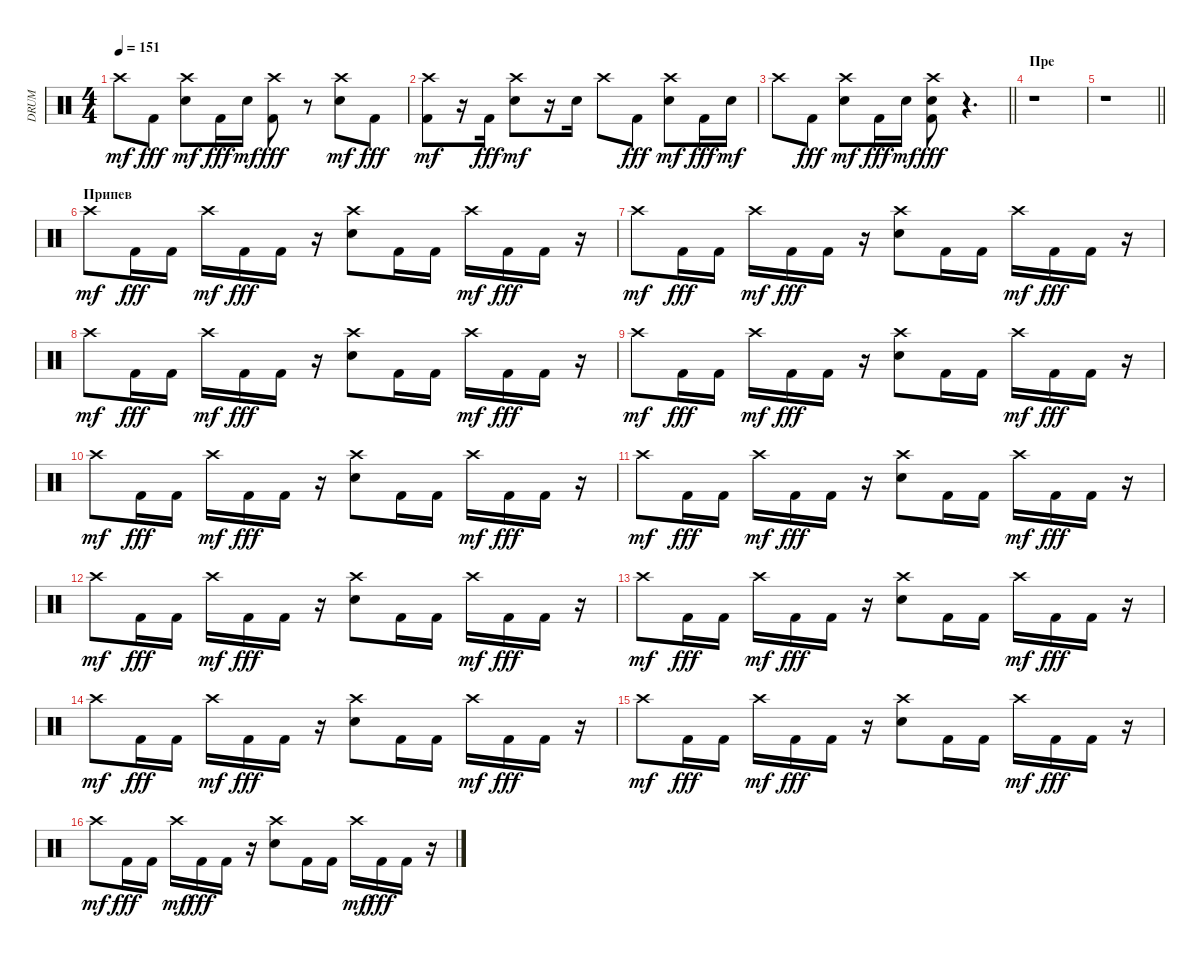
\track ("DRUM" "DRUM") {instrument percussion}
\staff {score}
\articulation defaults
\ts (4 4)
\tempo 151
\clef neutral
\ks c "Crash high (hit)".8{dy mf} "Kick (hit) 2".8{dy fff}
("Electric Snare (hit)" "Crash high (hit)").8{dy mf} "Kick (hit) 2".16{dy fff} "Electric Snare (hit)".16{dy mf} ("Crash high (hit)" "Kick (hit) 2").8{dy fff} r.8 ("Electric Snare (hit)" "Crash high (hit)").8{dy mf} "Kick (hit) 2".8{dy fff} |
("Kick (hit) 2" "Crash high (hit)").8{dy mf} r.16 "Kick (hit) 2".16{dy fff} ("Electric Snare (hit)" "Crash high (hit)").8{dy mf} r.16 "Electric Snare (hit)".16 "Crash high (hit)".8 "Kick (hit) 2".8{dy fff} ("Electric Snare (hit)" "Crash high (hit)").8{dy mf} "Kick (hit) 2".16{dy fff} "Electric Snare (hit)".16{dy mf} |
\barLineRight lightlight "Crash high (hit)".8 "Kick (hit) 2".8{dy fff}
("Electric Snare (hit)" "Crash high (hit)").8{dy mf} "Kick (hit) 2".16{dy fff} "Electric Snare (hit)".16{dy mf} ("Electric Snare (hit)" "Crash high (hit)" "Kick (hit) 2").8{dy fff} r.4{d} |
\section ("" "Пре")
r.1 |
\barLineRight lightlight
r.1 |
\section ("" "Припев")
"Crash high (hit)".8{dy mf} "Kick (hit) 2".16{dy fff} "Kick (hit) 2".16 "Crash high (hit)".16{dy mf} "Kick (hit) 2".16{dy fff} "Kick (hit) 2".16 r.16 ("Crash high (hit)" "Electric Snare (hit)").8 "Kick (hit) 2".16 "Kick (hit) 2".16 "Crash high (hit)".16{dy mf} "Kick (hit) 2".16{dy fff} "Kick (hit) 2".16 r.16 |
"Crash high (hit)".8{dy mf} "Kick (hit) 2".16{dy fff} "Kick (hit) 2".16 "Crash high (hit)".16{dy mf} "Kick (hit) 2".16{dy fff} "Kick (hit) 2".16 r.16 ("Crash high (hit)" "Electric Snare (hit)").8 "Kick (hit) 2".16 "Kick (hit) 2".16 "Crash high (hit)".16{dy mf} "Kick (hit) 2".16{dy fff} "Kick (hit) 2".16 r.16 |
"Crash high (hit)".8{dy mf} "Kick (hit) 2".16{dy fff} "Kick (hit) 2".16 "Crash high (hit)".16{dy mf} "Kick (hit) 2".16{dy fff} "Kick (hit) 2".16 r.16 ("Crash high (hit)" "Electric Snare (hit)").8 "Kick (hit) 2".16 "Kick (hit) 2".16 "Crash high (hit)".16{dy mf} "Kick (hit) 2".16{dy fff} "Kick (hit) 2".16 r.16 |
"Crash high (hit)".8{dy mf} "Kick (hit) 2".16{dy fff} "Kick (hit) 2".16 "Crash high (hit)".16{dy mf} "Kick (hit) 2".16{dy fff} "Kick (hit) 2".16 r.16 ("Crash high (hit)" "Electric Snare (hit)").8 "Kick (hit) 2".16 "Kick (hit) 2".16 "Crash high (hit)".16{dy mf} "Kick (hit) 2".16{dy fff} "Kick (hit) 2".16 r.16 |
"Crash high (hit)".8{dy mf} "Kick (hit) 2".16{dy fff} "Kick (hit) 2".16 "Crash high (hit)".16{dy mf} "Kick (hit) 2".16{dy fff} "Kick (hit) 2".16 r.16 ("Crash high (hit)" "Electric Snare (hit)").8 "Kick (hit) 2".16 "Kick (hit) 2".16 "Crash high (hit)".16{dy mf} "Kick (hit) 2".16{dy fff} "Kick (hit) 2".16 r.16 |
"Crash high (hit)".8{dy mf} "Kick (hit) 2".16{dy fff} "Kick (hit) 2".16 "Crash high (hit)".16{dy mf} "Kick (hit) 2".16{dy fff} "Kick (hit) 2".16 r.16 ("Crash high (hit)" "Electric Snare (hit)").8 "Kick (hit) 2".16 "Kick (hit) 2".16 "Crash high (hit)".16{dy mf} "Kick (hit) 2".16{dy fff} "Kick (hit) 2".16 r.16 |
"Crash high (hit)".8{dy mf} "Kick (hit) 2".16{dy fff} "Kick (hit) 2".16 "Crash high (hit)".16{dy mf} "Kick (hit) 2".16{dy fff} "Kick (hit) 2".16 r.16 ("Crash high (hit)" "Electric Snare (hit)").8 "Kick (hit) 2".16 "Kick (hit) 2".16 "Crash high (hit)".16{dy mf} "Kick (hit) 2".16{dy fff} "Kick (hit) 2".16 r.16 |
"Crash high (hit)".8{dy mf} "Kick (hit) 2".16{dy fff} "Kick (hit) 2".16 "Crash high (hit)".16{dy mf} "Kick (hit) 2".16{dy fff} "Kick (hit) 2".16 r.16 ("Crash high (hit)" "Electric Snare (hit)").8 "Kick (hit) 2".16 "Kick (hit) 2".16 "Crash high (hit)".16{dy mf} "Kick (hit) 2".16{dy fff} "Kick (hit) 2".16 r.16 |
"Crash high (hit)".8{dy mf} "Kick (hit) 2".16{dy fff} "Kick (hit) 2".16 "Crash high (hit)".16{dy mf} "Kick (hit) 2".16{dy fff} "Kick (hit) 2".16 r.16 ("Crash high (hit)" "Electric Snare (hit)").8 "Kick (hit) 2".16 "Kick (hit) 2".16 "Crash high (hit)".16{dy mf} "Kick (hit) 2".16{dy fff} "Kick (hit) 2".16 r.16 |
"Crash high (hit)".8{dy mf} "Kick (hit) 2".16{dy fff} "Kick (hit) 2".16 "Crash high (hit)".16{dy mf} "Kick (hit) 2".16{dy fff} "Kick (hit) 2".16 r.16 ("Crash high (hit)" "Electric Snare (hit)").8 "Kick (hit) 2".16 "Kick (hit) 2".16 "Crash high (hit)".16{dy mf} "Kick (hit) 2".16{dy fff} "Kick (hit) 2".16 r.16 |
"Crash high (hit)".8{dy mf} "Kick (hit) 2".16{dy fff} "Kick (hit) 2".16 "Crash high (hit)".16{dy mf} "Kick (hit) 2".16{dy fff} "Kick (hit) 2".16 r.16 ("Crash high (hit)" "Electric Snare (hit)").8 "Kick (hit) 2".16 "Kick (hit) 2".16 "Crash high (hit)".16{dy mf} "Kick (hit) 2".16{dy fff} "Kick (hit) 2".16 r.16
